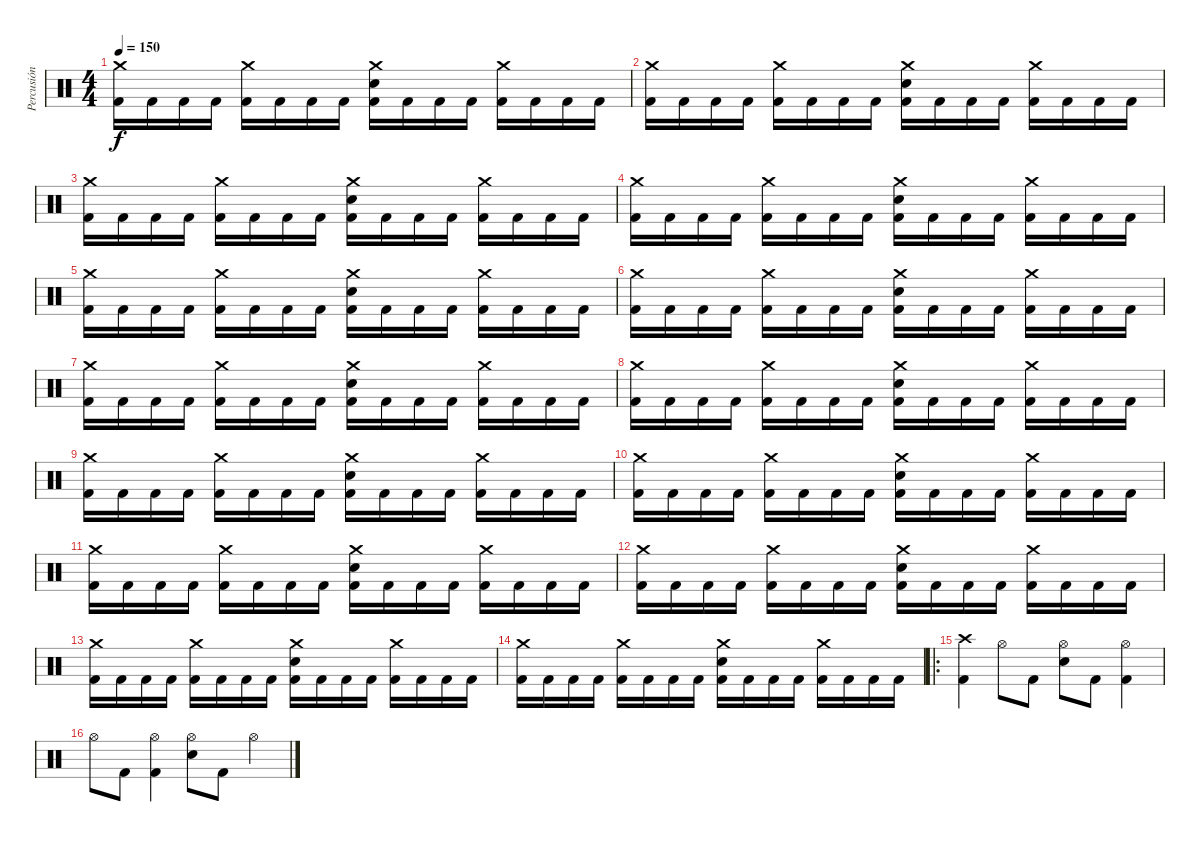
\track ("Percusión" "Percusión") {instrument percussion}
\staff {score}
\articulation defaults
\ts (4 4)
\tempo 150
\clef neutral
\ks c
("Crash medium (hit)" "Kick (hit) 2").16{dy f} "Kick (hit) 2".16 "Kick (hit) 2".16 "Kick (hit) 2".16 ("Crash medium (hit)" "Kick (hit) 2").16 "Kick (hit) 2".16 "Kick (hit) 2".16 "Kick (hit) 2".16 ("Snare (hit) 2" "Crash medium (hit)" "Kick (hit) 2").16 "Kick (hit) 2".16 "Kick (hit) 2".16 "Kick (hit) 2".16 ("Crash medium (hit)" "Kick (hit) 2").16 "Kick (hit) 2".16 "Kick (hit) 2".16 "Kick (hit) 2".16 |
("Crash medium (hit)" "Kick (hit) 2").16 "Kick (hit) 2".16 "Kick (hit) 2".16 "Kick (hit) 2".16 ("Crash medium (hit)" "Kick (hit) 2").16 "Kick (hit) 2".16 "Kick (hit) 2".16 "Kick (hit) 2".16 ("Snare (hit) 2" "Crash medium (hit)" "Kick (hit) 2").16 "Kick (hit) 2".16 "Kick (hit) 2".16 "Kick (hit) 2".16 ("Crash medium (hit)" "Kick (hit) 2").16 "Kick (hit) 2".16 "Kick (hit) 2".16 "Kick (hit) 2".16 |
("Crash medium (hit)" "Kick (hit) 2").16 "Kick (hit) 2".16 "Kick (hit) 2".16 "Kick (hit) 2".16 ("Crash medium (hit)" "Kick (hit) 2").16 "Kick (hit) 2".16 "Kick (hit) 2".16 "Kick (hit) 2".16 ("Snare (hit) 2" "Crash medium (hit)" "Kick (hit) 2").16 "Kick (hit) 2".16 "Kick (hit) 2".16 "Kick (hit) 2".16 ("Crash medium (hit)" "Kick (hit) 2").16 "Kick (hit) 2".16 "Kick (hit) 2".16 "Kick (hit) 2".16 |
("Crash medium (hit)" "Kick (hit) 2").16 "Kick (hit) 2".16 "Kick (hit) 2".16 "Kick (hit) 2".16 ("Crash medium (hit)" "Kick (hit) 2").16 "Kick (hit) 2".16 "Kick (hit) 2".16 "Kick (hit) 2".16 ("Snare (hit) 2" "Crash medium (hit)" "Kick (hit) 2").16 "Kick (hit) 2".16 "Kick (hit) 2".16 "Kick (hit) 2".16 ("Crash medium (hit)" "Kick (hit) 2").16 "Kick (hit) 2".16 "Kick (hit) 2".16 "Kick (hit) 2".16 |
("Crash medium (hit)" "Kick (hit) 2").16 "Kick (hit) 2".16 "Kick (hit) 2".16 "Kick (hit) 2".16 ("Crash medium (hit)" "Kick (hit) 2").16 "Kick (hit) 2".16 "Kick (hit) 2".16 "Kick (hit) 2".16 ("Snare (hit) 2" "Crash medium (hit)" "Kick (hit) 2").16 "Kick (hit) 2".16 "Kick (hit) 2".16 "Kick (hit) 2".16 ("Crash medium (hit)" "Kick (hit) 2").16 "Kick (hit) 2".16 "Kick (hit) 2".16 "Kick (hit) 2".16 |
("Crash medium (hit)" "Kick (hit) 2").16 "Kick (hit) 2".16 "Kick (hit) 2".16 "Kick (hit) 2".16 ("Crash medium (hit)" "Kick (hit) 2").16 "Kick (hit) 2".16 "Kick (hit) 2".16 "Kick (hit) 2".16 ("Snare (hit) 2" "Crash medium (hit)" "Kick (hit) 2").16 "Kick (hit) 2".16 "Kick (hit) 2".16 "Kick (hit) 2".16 ("Crash medium (hit)" "Kick (hit) 2").16 "Kick (hit) 2".16 "Kick (hit) 2".16 "Kick (hit) 2".16 |
("Crash medium (hit)" "Kick (hit) 2").16 "Kick (hit) 2".16 "Kick (hit) 2".16 "Kick (hit) 2".16 ("Crash medium (hit)" "Kick (hit) 2").16 "Kick (hit) 2".16 "Kick (hit) 2".16 "Kick (hit) 2".16 ("Snare (hit) 2" "Crash medium (hit)" "Kick (hit) 2").16 "Kick (hit) 2".16 "Kick (hit) 2".16 "Kick (hit) 2".16 ("Crash medium (hit)" "Kick (hit) 2").16 "Kick (hit) 2".16 "Kick (hit) 2".16 "Kick (hit) 2".16 |
("Crash medium (hit)" "Kick (hit) 2").16 "Kick (hit) 2".16 "Kick (hit) 2".16 "Kick (hit) 2".16 ("Crash medium (hit)" "Kick (hit) 2").16 "Kick (hit) 2".16 "Kick (hit) 2".16 "Kick (hit) 2".16 ("Snare (hit) 2" "Crash medium (hit)" "Kick (hit) 2").16 "Kick (hit) 2".16 "Kick (hit) 2".16 "Kick (hit) 2".16 ("Crash medium (hit)" "Kick (hit) 2").16 "Kick (hit) 2".16 "Kick (hit) 2".16 "Kick (hit) 2".16 |
("Crash medium (hit)" "Kick (hit) 2").16 "Kick (hit) 2".16 "Kick (hit) 2".16 "Kick (hit) 2".16 ("Crash medium (hit)" "Kick (hit) 2").16 "Kick (hit) 2".16 "Kick (hit) 2".16 "Kick (hit) 2".16 ("Snare (hit) 2" "Crash medium (hit)" "Kick (hit) 2").16 "Kick (hit) 2".16 "Kick (hit) 2".16 "Kick (hit) 2".16 ("Crash medium (hit)" "Kick (hit) 2").16 "Kick (hit) 2".16 "Kick (hit) 2".16 "Kick (hit) 2".16 |
("Crash medium (hit)" "Kick (hit) 2").16 "Kick (hit) 2".16 "Kick (hit) 2".16 "Kick (hit) 2".16 ("Crash medium (hit)" "Kick (hit) 2").16 "Kick (hit) 2".16 "Kick (hit) 2".16 "Kick (hit) 2".16 ("Snare (hit) 2" "Crash medium (hit)" "Kick (hit) 2").16 "Kick (hit) 2".16 "Kick (hit) 2".16 "Kick (hit) 2".16 ("Crash medium (hit)" "Kick (hit) 2").16 "Kick (hit) 2".16 "Kick (hit) 2".16 "Kick (hit) 2".16 |
("Crash medium (hit)" "Kick (hit) 2").16 "Kick (hit) 2".16 "Kick (hit) 2".16 "Kick (hit) 2".16 ("Crash medium (hit)" "Kick (hit) 2").16 "Kick (hit) 2".16 "Kick (hit) 2".16 "Kick (hit) 2".16 ("Snare (hit) 2" "Crash medium (hit)" "Kick (hit) 2").16 "Kick (hit) 2".16 "Kick (hit) 2".16 "Kick (hit) 2".16 ("Crash medium (hit)" "Kick (hit) 2").16 "Kick (hit) 2".16 "Kick (hit) 2".16 "Kick (hit) 2".16 |
("Crash medium (hit)" "Kick (hit) 2").16 "Kick (hit) 2".16 "Kick (hit) 2".16 "Kick (hit) 2".16 ("Crash medium (hit)" "Kick (hit) 2").16 "Kick (hit) 2".16 "Kick (hit) 2".16 "Kick (hit) 2".16 ("Snare (hit) 2" "Crash medium (hit)" "Kick (hit) 2").16 "Kick (hit) 2".16 "Kick (hit) 2".16 "Kick (hit) 2".16 ("Crash medium (hit)" "Kick (hit) 2").16 "Kick (hit) 2".16 "Kick (hit) 2".16 "Kick (hit) 2".16 |
("Crash medium (hit)" "Kick (hit) 2").16 "Kick (hit) 2".16 "Kick (hit) 2".16 "Kick (hit) 2".16 ("Crash medium (hit)" "Kick (hit) 2").16 "Kick (hit) 2".16 "Kick (hit) 2".16 "Kick (hit) 2".16 ("Snare (hit) 2" "Crash medium (hit)" "Kick (hit) 2").16 "Kick (hit) 2".16 "Kick (hit) 2".16 "Kick (hit) 2".16 ("Crash medium (hit)" "Kick (hit) 2").16 "Kick (hit) 2".16 "Kick (hit) 2".16 "Kick (hit) 2".16 |
("Crash medium (hit)" "Kick (hit) 2").16 "Kick (hit) 2".16 "Kick (hit) 2".16 "Kick (hit) 2".16 ("Crash medium (hit)" "Kick (hit) 2").16 "Kick (hit) 2".16 "Kick (hit) 2".16 "Kick (hit) 2".16 ("Snare (hit) 2" "Crash medium (hit)" "Kick (hit) 2").16 "Kick (hit) 2".16 "Kick (hit) 2".16 "Kick (hit) 2".16 ("Crash medium (hit)" "Kick (hit) 2").16 "Kick (hit) 2".16 "Kick (hit) 2".16 "Kick (hit) 2".16 |
\ro
("Crash high (hit)" "Kick (hit) 2").4 "Hi-Hat (open)".8 "Kick (hit) 2".8 ("Hi-Hat (open)" "Snare (hit) 2").8 "Kick (hit) 2".8 ("Hi-Hat (open)" "Kick (hit) 2").4 |
"Hi-Hat (open)".8 "Kick (hit) 2".8 ("Hi-Hat (open)" "Kick (hit) 2").4 ("Hi-Hat (open)" "Snare (hit) 2").8 "Kick (hit) 2".8 "Hi-Hat (open)".4
